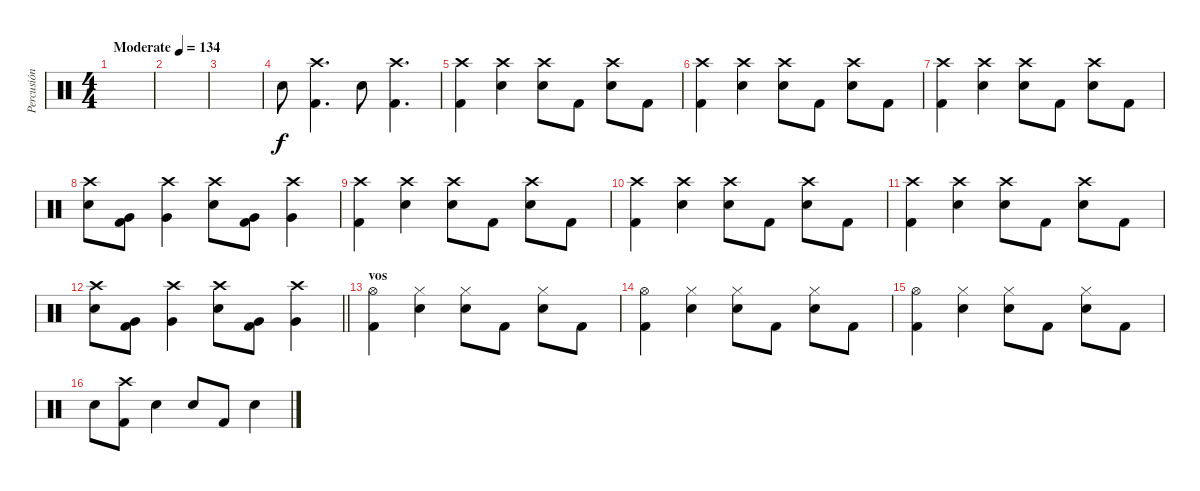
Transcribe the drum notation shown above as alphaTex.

\track ("Percusión" "Percusión") {instrument percussion}
\staff {score}
\articulation defaults
\ts (4 4)
\tempo (134 "Moderate")
\clef neutral
\ks c
|
|
|
"Snare (hit) 2".8 ("Crash high (hit)" "Kick (hit) 2").4{d} "Snare (hit) 2".8 ("Crash high (hit)" "Kick (hit) 2").4{d} |
("Crash high (hit)" "Kick (hit) 2").4 ("Crash high (hit)" "Snare (hit) 2").4 ("Crash high (hit)" "Snare (hit) 2").8 "Kick (hit) 2".8 ("Crash high (hit)" "Snare (hit) 2").8 "Kick (hit) 2".8 |
("Crash high (hit)" "Kick (hit) 2").4 ("Crash high (hit)" "Snare (hit) 2").4 ("Crash high (hit)" "Snare (hit) 2").8 "Kick (hit) 2".8 ("Crash high (hit)" "Snare (hit) 2").8 "Kick (hit) 2".8 |
("Crash high (hit)" "Kick (hit) 2").4 ("Crash high (hit)" "Snare (hit) 2").4 ("Crash high (hit)" "Snare (hit) 2").8 "Kick (hit) 2".8 ("Crash high (hit)" "Snare (hit) 2").8 "Kick (hit) 2".8 |
("Crash high (hit)" "Snare (hit) 2").8 ("Very Low Tom (hit)" "Kick (hit) 2").8 ("Crash high (hit)" "Very Low Tom (hit)").4 ("Crash high (hit)" "Snare (hit) 2").8 ("Very Low Tom (hit)" "Kick (hit) 2").8 ("Crash high (hit)" "Very Low Tom (hit)").4 |
("Crash high (hit)" "Kick (hit) 2").4 ("Crash high (hit)" "Snare (hit) 2").4 ("Crash high (hit)" "Snare (hit) 2").8 "Kick (hit) 2".8 ("Crash high (hit)" "Snare (hit) 2").8 "Kick (hit) 2".8 |
("Crash high (hit)" "Kick (hit) 2").4 ("Crash high (hit)" "Snare (hit) 2").4 ("Crash high (hit)" "Snare (hit) 2").8 "Kick (hit) 2".8 ("Crash high (hit)" "Snare (hit) 2").8 "Kick (hit) 2".8 |
("Crash high (hit)" "Kick (hit) 2").4 ("Crash high (hit)" "Snare (hit) 2").4 ("Crash high (hit)" "Snare (hit) 2").8 "Kick (hit) 2".8 ("Crash high (hit)" "Snare (hit) 2").8 "Kick (hit) 2".8 |
\barLineRight lightlight
("Crash high (hit)" "Snare (hit) 2").8 ("Very Low Tom (hit)" "Kick (hit) 2").8 ("Crash high (hit)" "Very Low Tom (hit)").4 ("Crash high (hit)" "Snare (hit) 2").8 ("Very Low Tom (hit)" "Kick (hit) 2").8 ("Crash high (hit)" "Very Low Tom (hit)").4 |
\section ("" "vos")
("Hi-Hat (open)" "Kick (hit) 2").4 ("Hi-Hat (closed)" "Snare (hit) 2").4 ("Hi-Hat (closed)" "Snare (hit) 2").8 "Kick (hit) 2".8 ("Hi-Hat (closed)" "Snare (hit) 2").8 "Kick (hit) 2".8 |
("Hi-Hat (open)" "Kick (hit) 2").4 ("Hi-Hat (closed)" "Snare (hit) 2").4 ("Hi-Hat (closed)" "Snare (hit) 2").8 "Kick (hit) 2".8 ("Hi-Hat (closed)" "Snare (hit) 2").8 "Kick (hit) 2".8 |
("Hi-Hat (open)" "Kick (hit) 2").4 ("Hi-Hat (closed)" "Snare (hit) 2").4 ("Hi-Hat (closed)" "Snare (hit) 2").8 "Kick (hit) 2".8 ("Hi-Hat (closed)" "Snare (hit) 2").8 "Kick (hit) 2".8 |
"Snare (hit) 2".8 ("Crash high (hit)" "Kick (hit) 2").8 "Snare (hit) 2".4 "Snare (hit) 2".8 "Kick (hit) 2".8 "Snare (hit) 2".4
